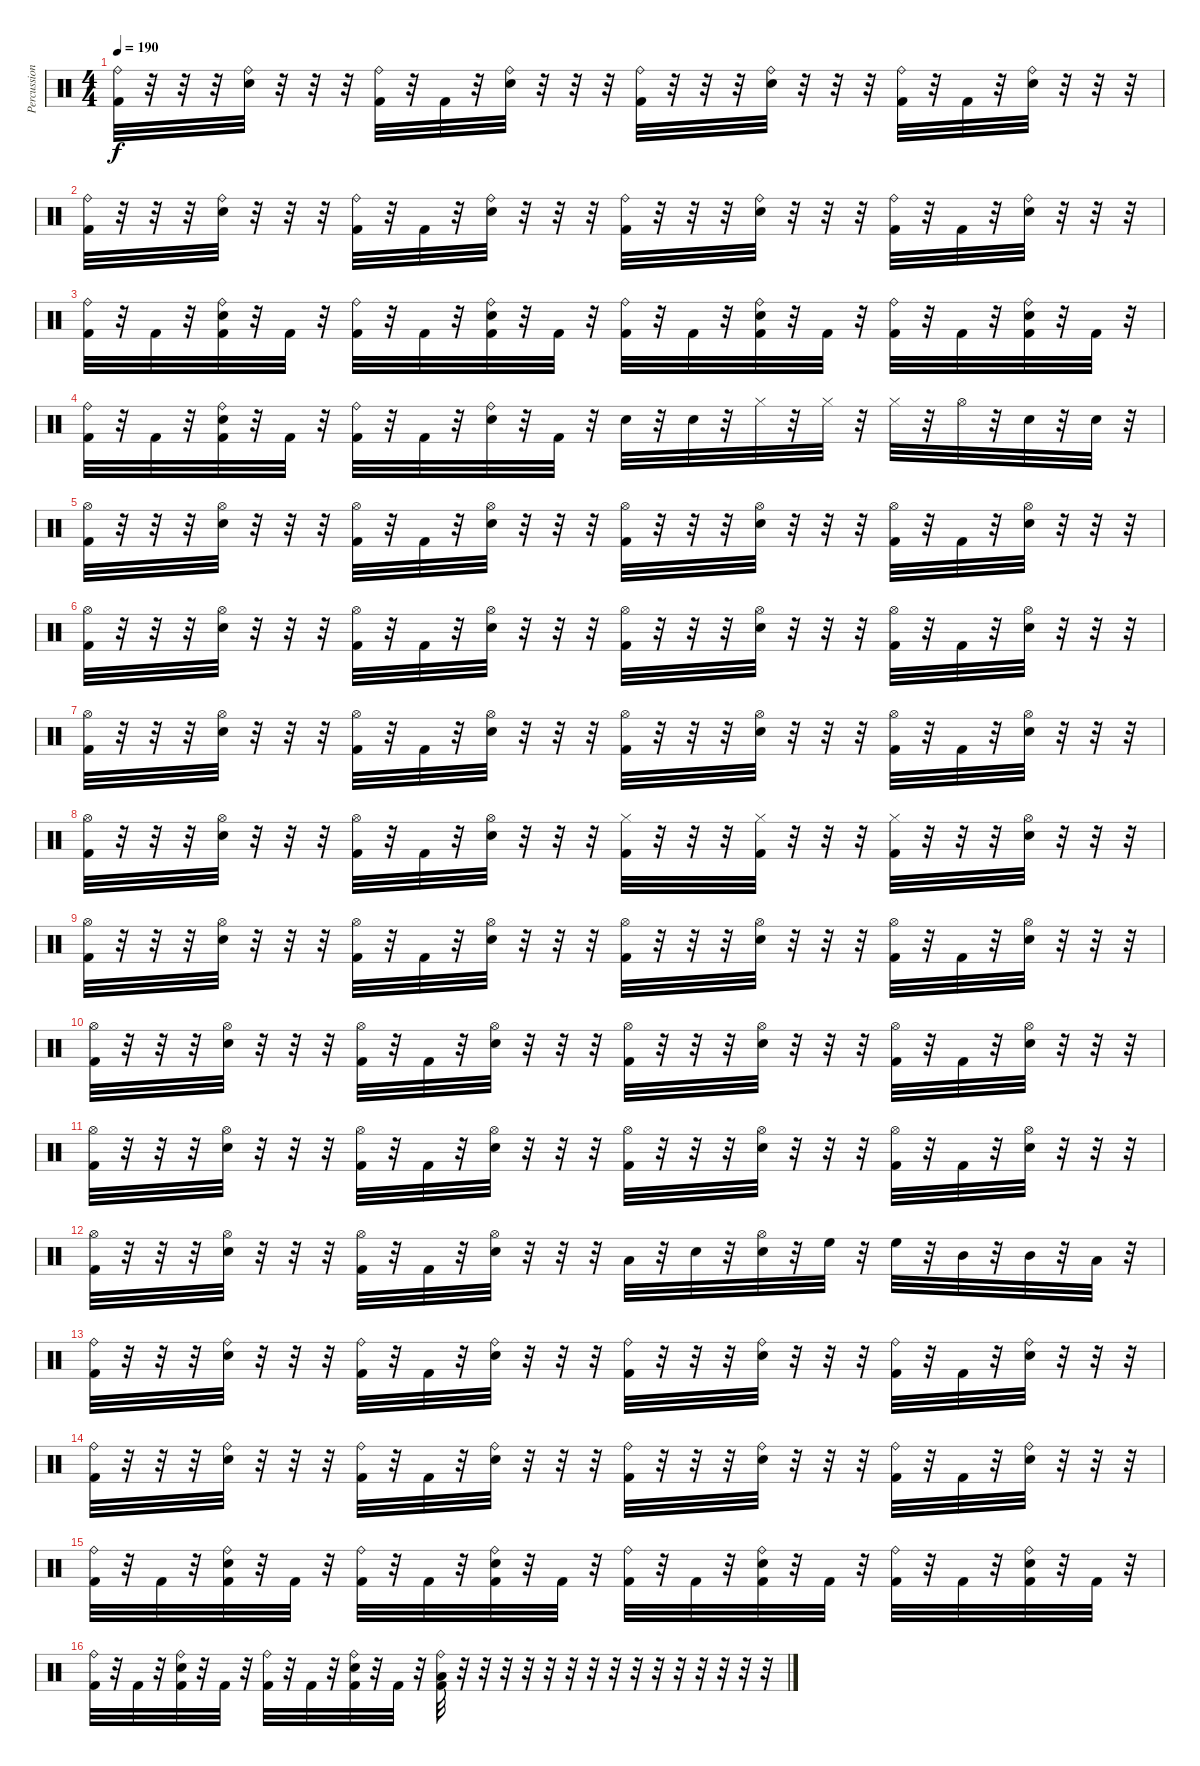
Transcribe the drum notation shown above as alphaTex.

\track ("Percussion" "Percussion") {instrument percussion}
\staff {score}
\articulation defaults
\ts (4 4)
\tempo 190
\clef neutral
\ks c
("Ride (bell)" "Kick (hit) 2").32{dy f} r.32 r.32 r.32 ("Ride (bell)" "Electric Snare (hit)").32 r.32 r.32 r.32 ("Ride (bell)" "Kick (hit) 2").32 r.32 "Kick (hit) 2".32 r.32 ("Ride (bell)" "Electric Snare (hit)").32 r.32 r.32 r.32 ("Ride (bell)" "Kick (hit) 2").32 r.32 r.32 r.32 ("Ride (bell)" "Electric Snare (hit)").32 r.32 r.32 r.32 ("Ride (bell)" "Kick (hit) 2").32 r.32 "Kick (hit) 2".32 r.32 ("Ride (bell)" "Electric Snare (hit)").32 r.32 r.32 r.32 |
("Ride (bell)" "Kick (hit) 2").32 r.32 r.32 r.32 ("Ride (bell)" "Electric Snare (hit)").32 r.32 r.32 r.32 ("Ride (bell)" "Kick (hit) 2").32 r.32 "Kick (hit) 2".32 r.32 ("Ride (bell)" "Electric Snare (hit)").32 r.32 r.32 r.32 ("Ride (bell)" "Kick (hit) 2").32 r.32 r.32 r.32 ("Ride (bell)" "Electric Snare (hit)").32 r.32 r.32 r.32 ("Ride (bell)" "Kick (hit) 2").32 r.32 "Kick (hit) 2".32 r.32 ("Ride (bell)" "Electric Snare (hit)").32 r.32 r.32 r.32 |
("Ride (bell)" "Kick (hit) 2").32 r.32 "Kick (hit) 2".32 r.32 ("Kick (hit) 2" "Ride (bell)" "Electric Snare (hit)").32 r.32 "Kick (hit) 2".32 r.32 ("Ride (bell)" "Kick (hit) 2").32 r.32 "Kick (hit) 2".32 r.32 ("Kick (hit) 2" "Ride (bell)" "Electric Snare (hit)").32 r.32 "Kick (hit) 2".32 r.32 ("Ride (bell)" "Kick (hit) 2").32 r.32 "Kick (hit) 2".32 r.32 ("Kick (hit) 2" "Ride (bell)" "Electric Snare (hit)").32 r.32 "Kick (hit) 2".32 r.32 ("Ride (bell)" "Kick (hit) 2").32 r.32 "Kick (hit) 2".32 r.32 ("Kick (hit) 2" "Ride (bell)" "Electric Snare (hit)").32 r.32 "Kick (hit) 2".32 r.32 |
("Ride (bell)" "Kick (hit) 2").32 r.32 "Kick (hit) 2".32 r.32 ("Kick (hit) 2" "Ride (bell)" "Electric Snare (hit)").32 r.32 "Kick (hit) 2".32 r.32 ("Ride (bell)" "Kick (hit) 2").32 r.32 "Kick (hit) 2".32 r.32 ("Ride (bell)" "Electric Snare (hit)").32 r.32 "Kick (hit) 2".32 r.32 "Electric Snare (hit)".32 r.32 "Electric Snare (hit)".32 r.32 "Hi-Hat (closed)".32 r.32 "Hi-Hat (closed)".32 r.32 "Hi-Hat (closed)".32 r.32 "Hi-Hat (open)".32 r.32 "Electric Snare (hit)".32 r.32 "Electric Snare (hit)".32 r.32 |
("Hi-Hat (open)" "Kick (hit) 2").32 r.32 r.32 r.32 ("Hi-Hat (open)" "Electric Snare (hit)").32 r.32 r.32 r.32 ("Hi-Hat (open)" "Kick (hit) 2").32 r.32 "Kick (hit) 2".32 r.32 ("Hi-Hat (open)" "Electric Snare (hit)").32 r.32 r.32 r.32 ("Hi-Hat (open)" "Kick (hit) 2").32 r.32 r.32 r.32 ("Hi-Hat (open)" "Electric Snare (hit)").32 r.32 r.32 r.32 ("Hi-Hat (open)" "Kick (hit) 2").32 r.32 "Kick (hit) 2".32 r.32 ("Hi-Hat (open)" "Electric Snare (hit)").32 r.32 r.32 r.32 |
("Hi-Hat (open)" "Kick (hit) 2").32 r.32 r.32 r.32 ("Hi-Hat (open)" "Electric Snare (hit)").32 r.32 r.32 r.32 ("Hi-Hat (open)" "Kick (hit) 2").32 r.32 "Kick (hit) 2".32 r.32 ("Hi-Hat (open)" "Electric Snare (hit)").32 r.32 r.32 r.32 ("Hi-Hat (open)" "Kick (hit) 2").32 r.32 r.32 r.32 ("Hi-Hat (open)" "Electric Snare (hit)").32 r.32 r.32 r.32 ("Hi-Hat (open)" "Kick (hit) 2").32 r.32 "Kick (hit) 2".32 r.32 ("Hi-Hat (open)" "Electric Snare (hit)").32 r.32 r.32 r.32 |
("Hi-Hat (open)" "Kick (hit) 2").32 r.32 r.32 r.32 ("Hi-Hat (open)" "Electric Snare (hit)").32 r.32 r.32 r.32 ("Hi-Hat (open)" "Kick (hit) 2").32 r.32 "Kick (hit) 2".32 r.32 ("Hi-Hat (open)" "Electric Snare (hit)").32 r.32 r.32 r.32 ("Hi-Hat (open)" "Kick (hit) 2").32 r.32 r.32 r.32 ("Hi-Hat (open)" "Electric Snare (hit)").32 r.32 r.32 r.32 ("Hi-Hat (open)" "Kick (hit) 2").32 r.32 "Kick (hit) 2".32 r.32 ("Hi-Hat (open)" "Electric Snare (hit)").32 r.32 r.32 r.32 |
("Hi-Hat (open)" "Kick (hit) 2").32 r.32 r.32 r.32 ("Hi-Hat (open)" "Electric Snare (hit)").32 r.32 r.32 r.32 ("Hi-Hat (open)" "Kick (hit) 2").32 r.32 "Kick (hit) 2".32 r.32 ("Hi-Hat (open)" "Electric Snare (hit)").32 r.32 r.32 r.32 ("Hi-Hat (closed)" "Kick (hit) 2").32 r.32 r.32 r.32 ("Hi-Hat (closed)" "Kick (hit) 2").32 r.32 r.32 r.32 ("Hi-Hat (closed)" "Kick (hit) 2").32 r.32 r.32 r.32 ("Hi-Hat (open)" "Electric Snare (hit)").32 r.32 r.32 r.32 |
("Hi-Hat (open)" "Kick (hit) 2").32 r.32 r.32 r.32 ("Hi-Hat (open)" "Electric Snare (hit)").32 r.32 r.32 r.32 ("Hi-Hat (open)" "Kick (hit) 2").32 r.32 "Kick (hit) 2".32 r.32 ("Hi-Hat (open)" "Electric Snare (hit)").32 r.32 r.32 r.32 ("Hi-Hat (open)" "Kick (hit) 2").32 r.32 r.32 r.32 ("Hi-Hat (open)" "Electric Snare (hit)").32 r.32 r.32 r.32 ("Hi-Hat (open)" "Kick (hit) 2").32 r.32 "Kick (hit) 2".32 r.32 ("Hi-Hat (open)" "Electric Snare (hit)").32 r.32 r.32 r.32 |
("Hi-Hat (open)" "Kick (hit) 2").32 r.32 r.32 r.32 ("Hi-Hat (open)" "Electric Snare (hit)").32 r.32 r.32 r.32 ("Hi-Hat (open)" "Kick (hit) 2").32 r.32 "Kick (hit) 2".32 r.32 ("Hi-Hat (open)" "Electric Snare (hit)").32 r.32 r.32 r.32 ("Hi-Hat (open)" "Kick (hit) 2").32 r.32 r.32 r.32 ("Hi-Hat (open)" "Electric Snare (hit)").32 r.32 r.32 r.32 ("Hi-Hat (open)" "Kick (hit) 2").32 r.32 "Kick (hit) 2".32 r.32 ("Hi-Hat (open)" "Electric Snare (hit)").32 r.32 r.32 r.32 |
("Hi-Hat (open)" "Kick (hit) 2").32 r.32 r.32 r.32 ("Hi-Hat (open)" "Electric Snare (hit)").32 r.32 r.32 r.32 ("Hi-Hat (open)" "Kick (hit) 2").32 r.32 "Kick (hit) 2".32 r.32 ("Hi-Hat (open)" "Electric Snare (hit)").32 r.32 r.32 r.32 ("Hi-Hat (open)" "Kick (hit) 2").32 r.32 r.32 r.32 ("Hi-Hat (open)" "Electric Snare (hit)").32 r.32 r.32 r.32 ("Hi-Hat (open)" "Kick (hit) 2").32 r.32 "Kick (hit) 2".32 r.32 ("Hi-Hat (open)" "Electric Snare (hit)").32 r.32 r.32 r.32 |
("Hi-Hat (open)" "Kick (hit) 2").32 r.32 r.32 r.32 ("Hi-Hat (open)" "Electric Snare (hit)").32 r.32 r.32 r.32 ("Hi-Hat (open)" "Kick (hit) 2").32 r.32 "Kick (hit) 2".32 r.32 ("Hi-Hat (open)" "Electric Snare (hit)").32 r.32 r.32 r.32 "Low Floor Tom (hit)".32 r.32 "Electric Snare (hit)".32 r.32 ("Hi-Hat (open)" "Electric Snare (hit)").32 r.32 "High Floor Tom (hit)".32 r.32 "High Floor Tom (hit)".32 r.32 "Mid Tom (hit)".32 r.32 "Mid Tom (hit)".32 r.32 "Low Floor Tom (hit)".32 r.32 |
("Ride (bell)" "Kick (hit) 2").32 r.32 r.32 r.32 ("Ride (bell)" "Electric Snare (hit)").32 r.32 r.32 r.32 ("Ride (bell)" "Kick (hit) 2").32 r.32 "Kick (hit) 2".32 r.32 ("Ride (bell)" "Electric Snare (hit)").32 r.32 r.32 r.32 ("Ride (bell)" "Kick (hit) 2").32 r.32 r.32 r.32 ("Ride (bell)" "Electric Snare (hit)").32 r.32 r.32 r.32 ("Ride (bell)" "Kick (hit) 2").32 r.32 "Kick (hit) 2".32 r.32 ("Ride (bell)" "Electric Snare (hit)").32 r.32 r.32 r.32 |
("Ride (bell)" "Kick (hit) 2").32 r.32 r.32 r.32 ("Ride (bell)" "Electric Snare (hit)").32 r.32 r.32 r.32 ("Ride (bell)" "Kick (hit) 2").32 r.32 "Kick (hit) 2".32 r.32 ("Ride (bell)" "Electric Snare (hit)").32 r.32 r.32 r.32 ("Ride (bell)" "Kick (hit) 2").32 r.32 r.32 r.32 ("Ride (bell)" "Electric Snare (hit)").32 r.32 r.32 r.32 ("Ride (bell)" "Kick (hit) 2").32 r.32 "Kick (hit) 2".32 r.32 ("Ride (bell)" "Electric Snare (hit)").32 r.32 r.32 r.32 |
("Ride (bell)" "Kick (hit) 2").32 r.32 "Kick (hit) 2".32 r.32 ("Kick (hit) 2" "Ride (bell)" "Electric Snare (hit)").32 r.32 "Kick (hit) 2".32 r.32 ("Ride (bell)" "Kick (hit) 2").32 r.32 "Kick (hit) 2".32 r.32 ("Kick (hit) 2" "Ride (bell)" "Electric Snare (hit)").32 r.32 "Kick (hit) 2".32 r.32 ("Ride (bell)" "Kick (hit) 2").32 r.32 "Kick (hit) 2".32 r.32 ("Kick (hit) 2" "Ride (bell)" "Electric Snare (hit)").32 r.32 "Kick (hit) 2".32 r.32 ("Ride (bell)" "Kick (hit) 2").32 r.32 "Kick (hit) 2".32 r.32 ("Kick (hit) 2" "Ride (bell)" "Electric Snare (hit)").32 r.32 "Kick (hit) 2".32 r.32 |
("Ride (bell)" "Kick (hit) 2").32 r.32 "Kick (hit) 2".32 r.32 ("Kick (hit) 2" "Ride (bell)" "Electric Snare (hit)").32 r.32 "Kick (hit) 2".32 r.32 ("Ride (bell)" "Kick (hit) 2").32 r.32 "Kick (hit) 2".32 r.32 ("Kick (hit) 2" "Ride (bell)" "Electric Snare (hit)").32 r.32 "Kick (hit) 2".32 r.32 ("Low Floor Tom (hit)" "Ride (bell)" "Kick (hit) 2").32 r.32 r.32 r.32 r.32 r.32 r.32 r.32 r.32 r.32 r.32 r.32 r.32 r.32 r.32 r.32
